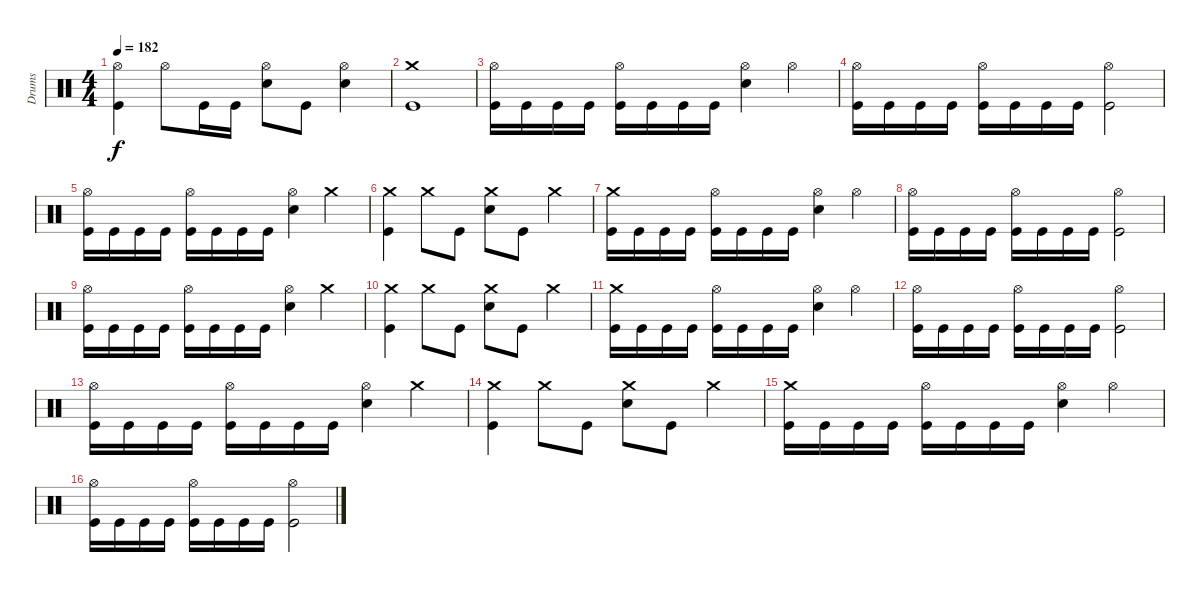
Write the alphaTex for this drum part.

\track ("Drums" "Drums") {instrument percussion}
\staff {score}
\articulation defaults
\ts (4 4)
\tempo 182
\clef neutral
\ks c
("Hi-Hat (open)" "Kick (hit)").4{dy f} "Hi-Hat (open)".8 "Kick (hit)".16 "Kick (hit)".16 ("Hi-Hat (open)" "Electric Snare (hit)").8 "Kick (hit)".8 ("Hi-Hat (open)" "Electric Snare (hit)").4 |
("Crash medium (hit)" "Kick (hit)").1 |
("Hi-Hat (open)" "Kick (hit)").16 "Kick (hit)".16 "Kick (hit)".16 "Kick (hit)".16 ("Hi-Hat (open)" "Kick (hit)").16 "Kick (hit)".16 "Kick (hit)".16 "Kick (hit)".16 ("Hi-Hat (open)" "Electric Snare (hit)").4 "Hi-Hat (open)".4 |
("Hi-Hat (open)" "Kick (hit)").16 "Kick (hit)".16 "Kick (hit)".16 "Kick (hit)".16 ("Hi-Hat (open)" "Kick (hit)").16 "Kick (hit)".16 "Kick (hit)".16 "Kick (hit)".16 ("Hi-Hat (open)" "Kick (hit)").2 |
("Hi-Hat (open)" "Kick (hit)").16 "Kick (hit)".16 "Kick (hit)".16 "Kick (hit)".16 ("Hi-Hat (open)" "Kick (hit)").16 "Kick (hit)".16 "Kick (hit)".16 "Kick (hit)".16 ("Hi-Hat (open)" "Electric Snare (hit)").4 "Crash medium (hit)".4 |
("Crash medium (hit)" "Kick (hit)").4 "Crash medium (hit)".8 "Kick (hit)".8 ("Crash medium (hit)" "Electric Snare (hit)").8 "Kick (hit)".8 "Crash medium (hit)".4 |
("Crash medium (hit)" "Kick (hit)").16 "Kick (hit)".16 "Kick (hit)".16 "Kick (hit)".16 ("Hi-Hat (open)" "Kick (hit)").16 "Kick (hit)".16 "Kick (hit)".16 "Kick (hit)".16 ("Hi-Hat (open)" "Electric Snare (hit)").4 "Hi-Hat (open)".4 |
("Hi-Hat (open)" "Kick (hit)").16 "Kick (hit)".16 "Kick (hit)".16 "Kick (hit)".16 ("Hi-Hat (open)" "Kick (hit)").16 "Kick (hit)".16 "Kick (hit)".16 "Kick (hit)".16 ("Hi-Hat (open)" "Kick (hit)").2 |
("Hi-Hat (open)" "Kick (hit)").16 "Kick (hit)".16 "Kick (hit)".16 "Kick (hit)".16 ("Hi-Hat (open)" "Kick (hit)").16 "Kick (hit)".16 "Kick (hit)".16 "Kick (hit)".16 ("Hi-Hat (open)" "Electric Snare (hit)").4 "Crash medium (hit)".4 |
("Crash medium (hit)" "Kick (hit)").4 "Crash medium (hit)".8 "Kick (hit)".8 ("Crash medium (hit)" "Electric Snare (hit)").8 "Kick (hit)".8 "Crash medium (hit)".4 |
("Crash medium (hit)" "Kick (hit)").16 "Kick (hit)".16 "Kick (hit)".16 "Kick (hit)".16 ("Hi-Hat (open)" "Kick (hit)").16 "Kick (hit)".16 "Kick (hit)".16 "Kick (hit)".16 ("Hi-Hat (open)" "Electric Snare (hit)").4 "Hi-Hat (open)".4 |
("Hi-Hat (open)" "Kick (hit)").16 "Kick (hit)".16 "Kick (hit)".16 "Kick (hit)".16 ("Hi-Hat (open)" "Kick (hit)").16 "Kick (hit)".16 "Kick (hit)".16 "Kick (hit)".16 ("Hi-Hat (open)" "Kick (hit)").2 |
("Hi-Hat (open)" "Kick (hit)").16 "Kick (hit)".16 "Kick (hit)".16 "Kick (hit)".16 ("Hi-Hat (open)" "Kick (hit)").16 "Kick (hit)".16 "Kick (hit)".16 "Kick (hit)".16 ("Hi-Hat (open)" "Electric Snare (hit)").4 "Crash medium (hit)".4 |
("Crash medium (hit)" "Kick (hit)").4 "Crash medium (hit)".8 "Kick (hit)".8 ("Crash medium (hit)" "Electric Snare (hit)").8 "Kick (hit)".8 "Crash medium (hit)".4 |
("Crash medium (hit)" "Kick (hit)").16 "Kick (hit)".16 "Kick (hit)".16 "Kick (hit)".16 ("Hi-Hat (open)" "Kick (hit)").16 "Kick (hit)".16 "Kick (hit)".16 "Kick (hit)".16 ("Hi-Hat (open)" "Electric Snare (hit)").4 "Hi-Hat (open)".4 |
("Hi-Hat (open)" "Kick (hit)").16 "Kick (hit)".16 "Kick (hit)".16 "Kick (hit)".16 ("Hi-Hat (open)" "Kick (hit)").16 "Kick (hit)".16 "Kick (hit)".16 "Kick (hit)".16 ("Hi-Hat (open)" "Kick (hit)").2
